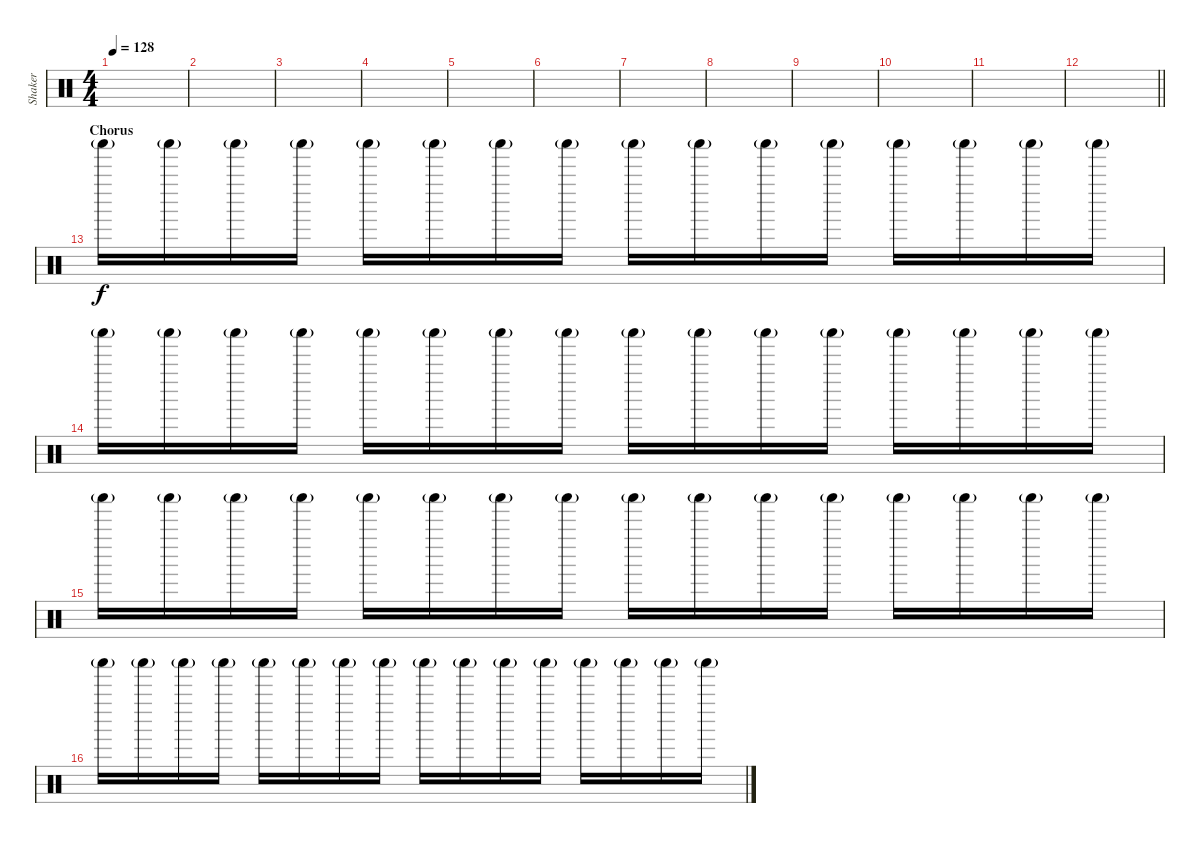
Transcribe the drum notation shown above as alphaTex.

\track ("Shaker" "Shaker") {instrument percussion}
\staff {score}
\articulation defaults
\ts (4 4)
\tempo 128
\clef neutral
\ks c
|
|
|
|
|
|
|
|
|
|
|
\barLineRight lightlight
|
\section ("" "Chorus")
"Shaker (hit)"{g}.16 "Shaker (hit)"{g}.16 "Shaker (hit)"{g}.16 "Shaker (hit)"{g}.16 "Shaker (hit)"{g}.16 "Shaker (hit)"{g}.16 "Shaker (hit)"{g}.16 "Shaker (hit)"{g}.16 "Shaker (hit)"{g}.16 "Shaker (hit)"{g}.16 "Shaker (hit)"{g}.16 "Shaker (hit)"{g}.16 "Shaker (hit)"{g}.16 "Shaker (hit)"{g}.16 "Shaker (hit)"{g}.16 "Shaker (hit)"{g}.16 |
"Shaker (hit)"{g}.16 "Shaker (hit)"{g}.16 "Shaker (hit)"{g}.16 "Shaker (hit)"{g}.16 "Shaker (hit)"{g}.16 "Shaker (hit)"{g}.16 "Shaker (hit)"{g}.16 "Shaker (hit)"{g}.16 "Shaker (hit)"{g}.16 "Shaker (hit)"{g}.16 "Shaker (hit)"{g}.16 "Shaker (hit)"{g}.16 "Shaker (hit)"{g}.16 "Shaker (hit)"{g}.16 "Shaker (hit)"{g}.16 "Shaker (hit)"{g}.16 |
"Shaker (hit)"{g}.16 "Shaker (hit)"{g}.16 "Shaker (hit)"{g}.16 "Shaker (hit)"{g}.16 "Shaker (hit)"{g}.16 "Shaker (hit)"{g}.16 "Shaker (hit)"{g}.16 "Shaker (hit)"{g}.16 "Shaker (hit)"{g}.16 "Shaker (hit)"{g}.16 "Shaker (hit)"{g}.16 "Shaker (hit)"{g}.16 "Shaker (hit)"{g}.16 "Shaker (hit)"{g}.16 "Shaker (hit)"{g}.16 "Shaker (hit)"{g}.16 |
"Shaker (hit)"{g}.16 "Shaker (hit)"{g}.16 "Shaker (hit)"{g}.16 "Shaker (hit)"{g}.16 "Shaker (hit)"{g}.16 "Shaker (hit)"{g}.16 "Shaker (hit)"{g}.16 "Shaker (hit)"{g}.16 "Shaker (hit)"{g}.16 "Shaker (hit)"{g}.16 "Shaker (hit)"{g}.16 "Shaker (hit)"{g}.16 "Shaker (hit)"{g}.16 "Shaker (hit)"{g}.16 "Shaker (hit)"{g}.16 "Shaker (hit)"{g}.16
